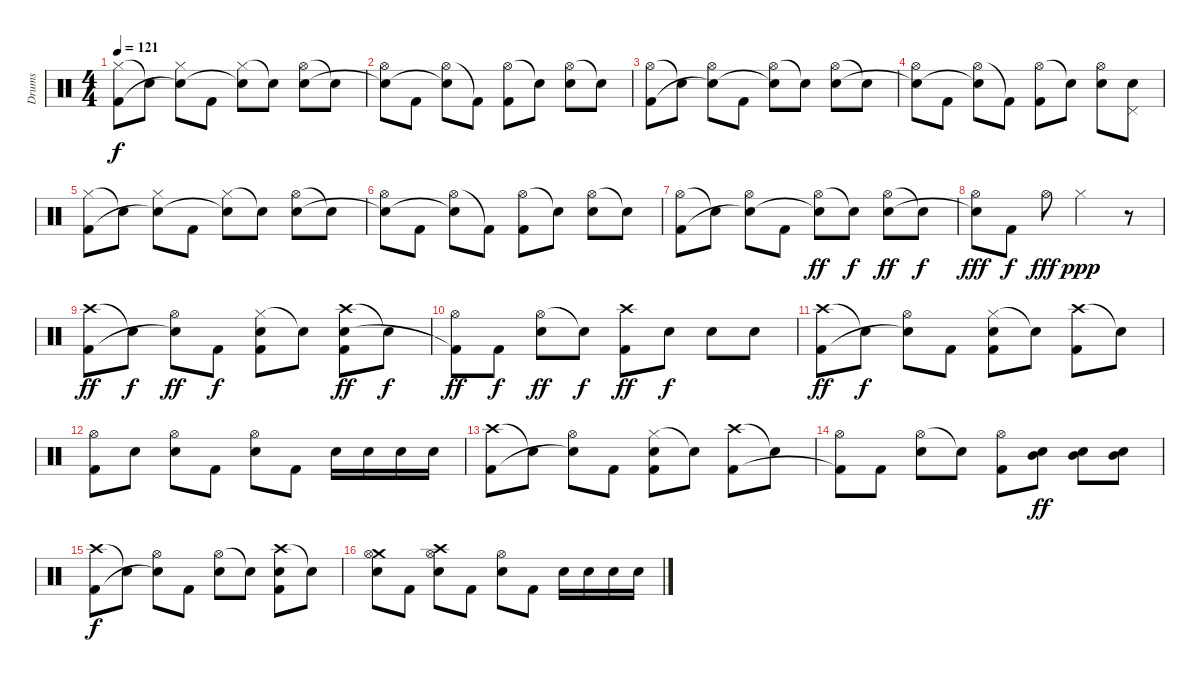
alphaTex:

\track ("Drums" "Drums") {instrument percussion}
\staff {score}
\articulation defaults
\ts (4 4)
\tempo 121
\clef neutral
\ks c
("Hi-Hat (closed)" "Kick (hit) 2").8{dy f} "Snare (hit)"{t}.8 ("Hi-Hat (closed)" "Snare (hit)"{t}).8 "Kick (hit) 2".8 ("Hi-Hat (closed)" "Snare (hit)"{t}).8 "Snare (hit)"{t}.8 ("Hi-Hat (open)" "Electric Snare (hit)").8 "Snare (hit)"{t}.8 |
("Hi-Hat (open)" "Snare (hit)"{t}).8 "Kick (hit) 2".8 ("Hi-Hat (open)" "Snare (hit)"{t}).8 "Kick (hit) 2"{t}.8 ("Hi-Hat (open)" "Kick (hit) 2").8 "Snare (hit)"{t}.8 ("Hi-Hat (open)" "Electric Snare (hit)").8 "Snare (hit)"{t}.8 |
("Hi-Hat (open)" "Kick (hit) 2").8 "Snare (hit)"{t}.8 ("Hi-Hat (open)" "Snare (hit)"{t}).8 "Kick (hit) 2".8 ("Hi-Hat (open)" "Snare (hit)"{t}).8 "Snare (hit)"{t}.8 ("Hi-Hat (open)" "Electric Snare (hit)").8 "Snare (hit)"{t}.8 |
("Hi-Hat (open)" "Snare (hit)"{t}).8 "Kick (hit) 2".8 ("Hi-Hat (open)" "Snare (hit)"{t}).8 "Kick (hit) 2"{t}.8 ("Hi-Hat (open)" "Kick (hit) 2").8 "Snare (hit)"{t}.8 ("Hi-Hat (open)" "Electric Snare (hit)").8 ("Pedal Hi-Hat (hit)" "Electric Snare (hit)").8 |
("Hi-Hat (closed)" "Kick (hit) 2").8 "Snare (hit)"{t}.8 ("Hi-Hat (closed)" "Snare (hit)"{t}).8 "Kick (hit) 2".8 ("Hi-Hat (closed)" "Snare (hit)"{t}).8 "Snare (hit)"{t}.8 ("Hi-Hat (open)" "Electric Snare (hit)").8 "Snare (hit)"{t}.8 |
("Hi-Hat (open)" "Snare (hit)"{t}).8 "Kick (hit) 2".8 ("Hi-Hat (open)" "Snare (hit)"{t}).8 "Kick (hit) 2"{t}.8 ("Hi-Hat (open)" "Kick (hit) 2").8 "Snare (hit)"{t}.8 ("Hi-Hat (open)" "Electric Snare (hit)").8 "Snare (hit)"{t}.8 |
("Hi-Hat (open)" "Kick (hit) 2").8 "Snare (hit)"{t}.8 ("Hi-Hat (open)" "Snare (hit)"{t}).8 "Kick (hit) 2".8 ("Hi-Hat (open)" "Snare (hit)"{t}).8{dy ff} "Snare (hit)"{t}.8{dy f} ("Hi-Hat (open)" "Electric Snare (hit)").8{dy ff} "Snare (hit)"{t}.8{dy f} |
("Hi-Hat (open)" "Snare (hit)"{t}).8{dy fff} "Kick (hit) 2".8{dy f} "Hi-Hat (open)".8{dy fff} "Hi-Hat (closed)".2{dy ppp} r.8 |
("Crash high (hit)" "Kick (hit) 2").8{dy ff} "Snare (hit)"{t}.8{dy f} ("Hi-Hat (open)" "Snare (hit)"{t}).8{dy ff} "Kick (hit) 2".8{dy f} ("Hi-Hat (closed)" "Electric Snare (hit)" "Kick (hit) 2").8 "Snare (hit)"{t}.8 ("Crash high (hit)" "Electric Snare (hit)" "Kick (hit) 2").8{dy ff} "Snare (hit)"{t}.8{dy f} |
("Hi-Hat (open)" "Kick (hit) 2"{t}).8{dy ff} "Kick (hit) 2".8{dy f} ("Hi-Hat (open)" "Electric Snare (hit)").8{dy ff} "Snare (hit)"{t}.8{dy f} ("Crash high (hit)" "Kick (hit) 2").8{dy ff} "Electric Snare (hit)".8{dy f} "Electric Snare (hit)".8 "Electric Snare (hit)".8 |
("Crash high (hit)" "Kick (hit) 2").8{dy ff} "Snare (hit)"{t}.8{dy f} ("Hi-Hat (open)" "Snare (hit)"{t}).8 "Kick (hit) 2".8 ("Hi-Hat (closed)" "Electric Snare (hit)" "Kick (hit) 2").8 "Snare (hit)"{t}.8 ("Crash high (hit)" "Kick (hit) 2").8 "Snare (hit)"{t}.8 |
("Hi-Hat (open)" "Kick (hit) 2").8 "Electric Snare (hit)".8 ("Hi-Hat (open)" "Electric Snare (hit)").8 "Kick (hit) 2".8 ("Hi-Hat (open)" "Electric Snare (hit)").8 "Kick (hit) 2".8 "Electric Snare (hit)".16 "Electric Snare (hit)".16 "Electric Snare (hit)".16 "Electric Snare (hit)".16 |
("Crash high (hit)" "Kick (hit) 2").8 "Snare (hit)"{t}.8 ("Hi-Hat (open)" "Snare (hit)"{t}).8 "Kick (hit) 2".8 ("Hi-Hat (closed)" "Electric Snare (hit)" "Kick (hit) 2").8 "Snare (hit)"{t}.8 ("Crash high (hit)" "Kick (hit) 2").8 "Snare (hit)"{t}.8 |
("Hi-Hat (open)" "Kick (hit) 2"{t}).8 "Kick (hit) 2".8 ("Hi-Hat (open)" "Electric Snare (hit)").8 "Snare (hit)"{t}.8 ("Hi-Hat (open)" "Kick (hit) 2").8 ("Mid Tom (hit)" "Electric Snare (hit)").8{dy ff} ("Mid Tom (hit)" "Electric Snare (hit)").8 ("Mid Tom (hit)" "Electric Snare (hit)").8 |
("Crash high (hit)" "Kick (hit) 2").8{dy f} "Snare (hit)"{t}.8 ("Hi-Hat (open)" "Snare (hit)"{t}).8 "Kick (hit) 2".8 ("Hi-Hat (open)" "Electric Snare (hit)").8 "Snare (hit)"{t}.8 ("Crash high (hit)" "Electric Snare (hit)" "Kick (hit) 2").8 "Snare (hit)"{t}.8 |
("Crash medium (hit)" "Hi-Hat (open)" "Electric Snare (hit)").8 "Kick (hit) 2".8 ("Crash high (hit)" "Hi-Hat (open)" "Electric Snare (hit)").8 "Kick (hit) 2".8 ("Hi-Hat (open)" "Electric Snare (hit)").8 "Kick (hit) 2".8 "Electric Snare (hit)".16 "Electric Snare (hit)".16 "Electric Snare (hit)".16 "Electric Snare (hit)".16
